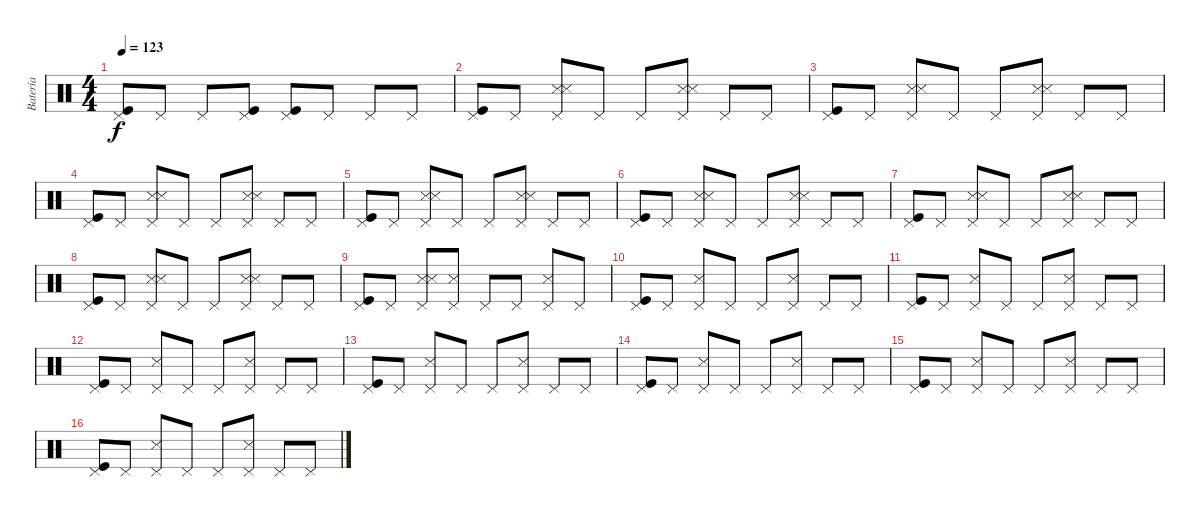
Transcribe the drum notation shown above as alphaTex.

\track ("Batería" "Batería") {instrument percussion}
\staff {score}
\articulation defaults
\ts (4 4)
\tempo 123
\clef neutral
\ks c
("Pedal Hi-Hat (hit)" "Kick (hit)").8{dy f} "Pedal Hi-Hat (hit)".8 "Pedal Hi-Hat (hit)".8 ("Pedal Hi-Hat (hit)" "Kick (hit)").8 ("Pedal Hi-Hat (hit)" "Kick (hit)").8 "Pedal Hi-Hat (hit)".8 "Pedal Hi-Hat (hit)".8 "Pedal Hi-Hat (hit)".8 |
("Pedal Hi-Hat (hit)" "Kick (hit)").8 "Pedal Hi-Hat (hit)".8 ("Pedal Hi-Hat (hit)" "Snare (side stick) 3" "Snare (side stick) 3").8 "Pedal Hi-Hat (hit)".8 "Pedal Hi-Hat (hit)".8 ("Pedal Hi-Hat (hit)" "Snare (side stick) 3" "Snare (side stick) 3").8 "Pedal Hi-Hat (hit)".8 "Pedal Hi-Hat (hit)".8 |
("Pedal Hi-Hat (hit)" "Kick (hit)").8 "Pedal Hi-Hat (hit)".8 ("Pedal Hi-Hat (hit)" "Snare (side stick) 3" "Snare (side stick) 3").8 "Pedal Hi-Hat (hit)".8 "Pedal Hi-Hat (hit)".8 ("Pedal Hi-Hat (hit)" "Snare (side stick) 3" "Snare (side stick) 3").8 "Pedal Hi-Hat (hit)".8 "Pedal Hi-Hat (hit)".8 |
("Pedal Hi-Hat (hit)" "Kick (hit)").8 "Pedal Hi-Hat (hit)".8 ("Pedal Hi-Hat (hit)" "Snare (side stick) 3" "Snare (side stick) 3").8 "Pedal Hi-Hat (hit)".8 "Pedal Hi-Hat (hit)".8 ("Pedal Hi-Hat (hit)" "Snare (side stick) 3" "Snare (side stick) 3").8 "Pedal Hi-Hat (hit)".8 "Pedal Hi-Hat (hit)".8 |
("Pedal Hi-Hat (hit)" "Kick (hit)").8 "Pedal Hi-Hat (hit)".8 ("Pedal Hi-Hat (hit)" "Snare (side stick) 3" "Snare (side stick) 3").8 "Pedal Hi-Hat (hit)".8 "Pedal Hi-Hat (hit)".8 ("Pedal Hi-Hat (hit)" "Snare (side stick) 3" "Snare (side stick) 3").8 "Pedal Hi-Hat (hit)".8 "Pedal Hi-Hat (hit)".8 |
("Pedal Hi-Hat (hit)" "Kick (hit)").8 "Pedal Hi-Hat (hit)".8 ("Pedal Hi-Hat (hit)" "Snare (side stick) 3" "Snare (side stick) 3").8 "Pedal Hi-Hat (hit)".8 "Pedal Hi-Hat (hit)".8 ("Pedal Hi-Hat (hit)" "Snare (side stick) 3" "Snare (side stick) 3").8 "Pedal Hi-Hat (hit)".8 "Pedal Hi-Hat (hit)".8 |
("Pedal Hi-Hat (hit)" "Kick (hit)").8 "Pedal Hi-Hat (hit)".8 ("Pedal Hi-Hat (hit)" "Snare (side stick) 3" "Snare (side stick) 3").8 "Pedal Hi-Hat (hit)".8 "Pedal Hi-Hat (hit)".8 ("Pedal Hi-Hat (hit)" "Snare (side stick) 3" "Snare (side stick) 3").8 "Pedal Hi-Hat (hit)".8 "Pedal Hi-Hat (hit)".8 |
("Pedal Hi-Hat (hit)" "Kick (hit)").8 "Pedal Hi-Hat (hit)".8 ("Pedal Hi-Hat (hit)" "Snare (side stick) 3" "Snare (side stick) 3").8 "Pedal Hi-Hat (hit)".8 "Pedal Hi-Hat (hit)".8 ("Pedal Hi-Hat (hit)" "Snare (side stick) 3" "Snare (side stick) 3").8 "Pedal Hi-Hat (hit)".8 "Pedal Hi-Hat (hit)".8 |
("Pedal Hi-Hat (hit)" "Kick (hit)").8 "Pedal Hi-Hat (hit)".8 ("Pedal Hi-Hat (hit)" "Snare (side stick) 3" "Snare (side stick) 3").8 ("Pedal Hi-Hat (hit)" "Snare (side stick) 3").8 "Pedal Hi-Hat (hit)".8 "Pedal Hi-Hat (hit)".8 ("Pedal Hi-Hat (hit)" "Snare (side stick) 3").8 "Pedal Hi-Hat (hit)".8 |
("Pedal Hi-Hat (hit)" "Kick (hit)").8 "Pedal Hi-Hat (hit)".8 ("Pedal Hi-Hat (hit)" "Snare (side stick) 3").8 "Pedal Hi-Hat (hit)".8 "Pedal Hi-Hat (hit)".8 ("Pedal Hi-Hat (hit)" "Snare (side stick) 3").8 "Pedal Hi-Hat (hit)".8 "Pedal Hi-Hat (hit)".8 |
("Pedal Hi-Hat (hit)" "Kick (hit)").8 "Pedal Hi-Hat (hit)".8 ("Pedal Hi-Hat (hit)" "Snare (side stick) 3").8 "Pedal Hi-Hat (hit)".8 "Pedal Hi-Hat (hit)".8 ("Pedal Hi-Hat (hit)" "Snare (side stick) 3").8 "Pedal Hi-Hat (hit)".8 "Pedal Hi-Hat (hit)".8 |
("Pedal Hi-Hat (hit)" "Kick (hit)").8 "Pedal Hi-Hat (hit)".8 ("Pedal Hi-Hat (hit)" "Snare (side stick) 3").8 "Pedal Hi-Hat (hit)".8 "Pedal Hi-Hat (hit)".8 ("Pedal Hi-Hat (hit)" "Snare (side stick) 3").8 "Pedal Hi-Hat (hit)".8 "Pedal Hi-Hat (hit)".8 |
("Pedal Hi-Hat (hit)" "Kick (hit)").8 "Pedal Hi-Hat (hit)".8 ("Pedal Hi-Hat (hit)" "Snare (side stick) 3").8 "Pedal Hi-Hat (hit)".8 "Pedal Hi-Hat (hit)".8 ("Pedal Hi-Hat (hit)" "Snare (side stick) 3").8 "Pedal Hi-Hat (hit)".8 "Pedal Hi-Hat (hit)".8 |
("Pedal Hi-Hat (hit)" "Kick (hit)").8 "Pedal Hi-Hat (hit)".8 ("Pedal Hi-Hat (hit)" "Snare (side stick) 3").8 "Pedal Hi-Hat (hit)".8 "Pedal Hi-Hat (hit)".8 ("Pedal Hi-Hat (hit)" "Snare (side stick) 3").8 "Pedal Hi-Hat (hit)".8 "Pedal Hi-Hat (hit)".8 |
("Pedal Hi-Hat (hit)" "Kick (hit)").8 "Pedal Hi-Hat (hit)".8 ("Pedal Hi-Hat (hit)" "Snare (side stick) 3").8 "Pedal Hi-Hat (hit)".8 "Pedal Hi-Hat (hit)".8 ("Pedal Hi-Hat (hit)" "Snare (side stick) 3").8 "Pedal Hi-Hat (hit)".8 "Pedal Hi-Hat (hit)".8 |
("Pedal Hi-Hat (hit)" "Kick (hit)").8 "Pedal Hi-Hat (hit)".8 ("Pedal Hi-Hat (hit)" "Snare (side stick) 3").8 "Pedal Hi-Hat (hit)".8 "Pedal Hi-Hat (hit)".8 ("Pedal Hi-Hat (hit)" "Snare (side stick) 3").8 "Pedal Hi-Hat (hit)".8 "Pedal Hi-Hat (hit)".8
